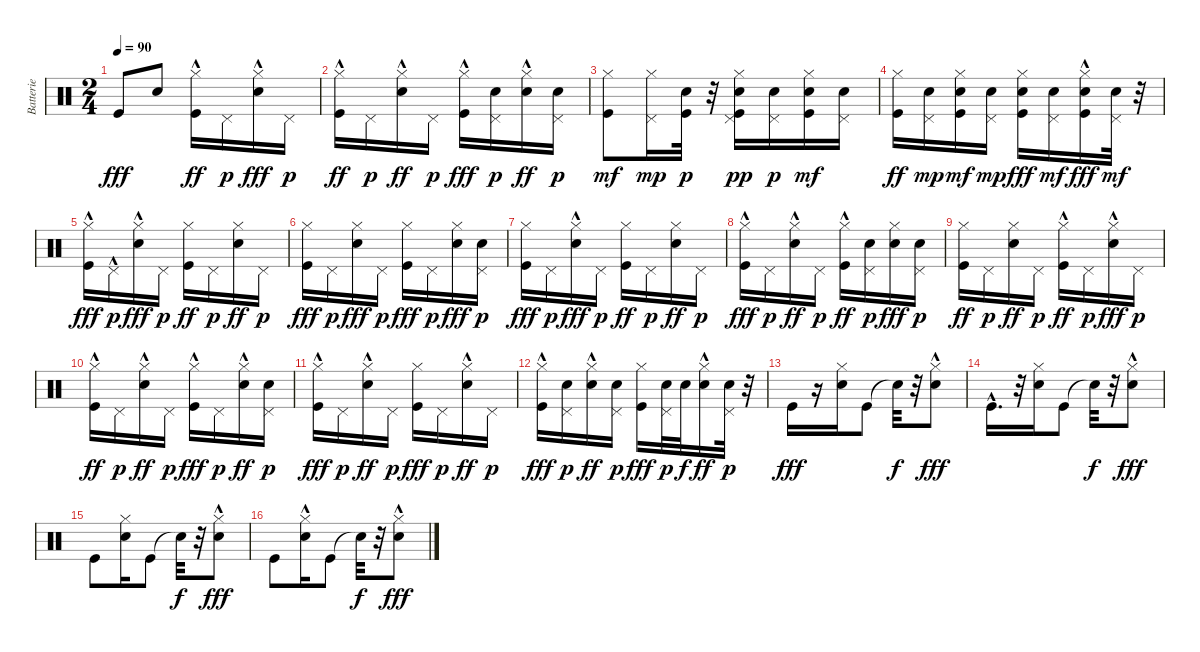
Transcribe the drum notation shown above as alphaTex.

\track ("Batterie" "Batterie") {instrument percussion}
\staff {score}
\articulation defaults
\ts (2 4)
\tempo 90
\clef neutral
\ks c "Kick (hit)".8{dy fff} "Snare (hit) 2".8
("Kick (hit)" "Hi-Hat (closed)"{hac}).16{dy ff} "Pedal Hi-Hat (hit)".16{dy p} ("Snare (hit) 2" "Hi-Hat (closed)"{hac}).16{dy fff} "Pedal Hi-Hat (hit)".16{dy p} |
("Kick (hit)" "Hi-Hat (closed)"{hac}).16{dy ff} "Pedal Hi-Hat (hit)".16{dy p} ("Snare (hit) 2" "Hi-Hat (closed)"{hac}).16{dy ff} "Pedal Hi-Hat (hit)".16{dy p} ("Kick (hit)" "Hi-Hat (closed)"{hac}).16{dy fff} ("Snare (hit) 2" "Pedal Hi-Hat (hit)").16{dy p} ("Snare (hit) 2" "Hi-Hat (closed)"{hac}).16{dy ff} ("Snare (hit) 2" "Pedal Hi-Hat (hit)").16{dy p} |
("Kick (hit)" "Hi-Hat (closed)").8{dy mf} ("Hi-Hat (closed)" "Pedal Hi-Hat (hit)").16{dy mp} ("Kick (hit)" "Snare (hit) 2").32{dy p} r.32 ("Kick (hit)" "Snare (hit) 2" "Hi-Hat (closed)" "Pedal Hi-Hat (hit)").16{dy pp} ("Snare (hit) 2" "Pedal Hi-Hat (hit)").16{dy p} ("Kick (hit)" "Snare (hit) 2" "Hi-Hat (closed)").16{dy mf} ("Snare (hit) 2" "Pedal Hi-Hat (hit)").16 |
("Kick (hit)" "Hi-Hat (closed)").16{dy ff} ("Snare (hit) 2" "Pedal Hi-Hat (hit)").16{dy mp} ("Kick (hit)" "Snare (hit) 2" "Hi-Hat (closed)").16{dy mf} ("Snare (hit) 2" "Pedal Hi-Hat (hit)").16{dy mp} ("Kick (hit)" "Snare (hit) 2" "Hi-Hat (closed)").16{dy fff} ("Snare (hit) 2" "Pedal Hi-Hat (hit)").16{dy mf} ("Kick (hit)"{hac} "Snare (hit) 2" "Hi-Hat (closed)").16{dy fff} ("Snare (hit) 2" "Pedal Hi-Hat (hit)").32{dy mf} r.32 |
("Kick (hit)" "Hi-Hat (closed)"{hac}).16{dy fff} "Pedal Hi-Hat (hit)"{hac}.16{dy p} ("Snare (hit) 2" "Hi-Hat (closed)"{hac}).16{dy fff} "Pedal Hi-Hat (hit)".16{dy p} ("Kick (hit)" "Hi-Hat (closed)").16{dy ff} "Pedal Hi-Hat (hit)".16{dy p} ("Snare (hit) 2" "Hi-Hat (closed)").16{dy ff} "Pedal Hi-Hat (hit)".16{dy p} |
("Kick (hit)" "Hi-Hat (closed)").16{dy fff} "Pedal Hi-Hat (hit)".16{dy p} ("Snare (hit) 2" "Hi-Hat (closed)").16{dy fff} "Pedal Hi-Hat (hit)".16{dy p} ("Kick (hit)" "Hi-Hat (closed)").16{dy fff} "Pedal Hi-Hat (hit)".16{dy p} ("Snare (hit) 2" "Hi-Hat (closed)").16{dy fff} ("Snare (hit) 2" "Pedal Hi-Hat (hit)").16{dy p} |
("Kick (hit)" "Hi-Hat (closed)").16{dy fff} "Pedal Hi-Hat (hit)".16{dy p} ("Snare (hit) 2" "Hi-Hat (closed)"{hac}).16{dy fff} "Pedal Hi-Hat (hit)".16{dy p} ("Kick (hit)" "Hi-Hat (closed)").16{dy ff} "Pedal Hi-Hat (hit)".16{dy p} ("Snare (hit) 2" "Hi-Hat (closed)").16{dy ff} "Pedal Hi-Hat (hit)".16{dy p} |
("Kick (hit)" "Hi-Hat (closed)"{hac}).16{dy fff} "Pedal Hi-Hat (hit)".16{dy p} ("Snare (hit) 2" "Hi-Hat (closed)"{hac}).16{dy ff} "Pedal Hi-Hat (hit)".16{dy p} ("Kick (hit)" "Hi-Hat (closed)"{hac}).16{dy ff} ("Snare (hit) 2" "Pedal Hi-Hat (hit)").16{dy p} ("Snare (hit) 2" "Hi-Hat (closed)").16{dy fff} ("Snare (hit) 2" "Pedal Hi-Hat (hit)").16{dy p} |
("Kick (hit)" "Hi-Hat (closed)").16{dy ff} "Pedal Hi-Hat (hit)".16{dy p} ("Snare (hit) 2" "Hi-Hat (closed)").16{dy ff} "Pedal Hi-Hat (hit)".16{dy p} ("Kick (hit)" "Hi-Hat (closed)"{hac}).16{dy ff} "Pedal Hi-Hat (hit)".16{dy p} ("Snare (hit) 2" "Hi-Hat (closed)"{hac}).16{dy fff} "Pedal Hi-Hat (hit)".16{dy p} |
("Kick (hit)" "Hi-Hat (closed)"{hac}).16{dy ff} "Pedal Hi-Hat (hit)".16{dy p} ("Snare (hit) 2" "Hi-Hat (closed)"{hac}).16{dy ff} "Pedal Hi-Hat (hit)".16{dy p} ("Kick (hit)" "Hi-Hat (closed)"{hac}).16{dy fff} "Pedal Hi-Hat (hit)".16{dy p} ("Snare (hit) 2" "Hi-Hat (closed)"{hac}).16{dy ff} ("Snare (hit) 2" "Pedal Hi-Hat (hit)").16{dy p} |
("Kick (hit)" "Hi-Hat (closed)"{hac}).16{dy fff} "Pedal Hi-Hat (hit)".16{dy p} ("Snare (hit) 2" "Hi-Hat (closed)"{hac}).16{dy ff} "Pedal Hi-Hat (hit)".16{dy p} ("Kick (hit)" "Hi-Hat (closed)").16{dy fff} "Pedal Hi-Hat (hit)".16{dy p} ("Snare (hit) 2" "Hi-Hat (closed)"{hac}).16{dy ff} "Pedal Hi-Hat (hit)".16{dy p} |
("Kick (hit)" "Hi-Hat (closed)"{hac}).16{dy fff} ("Snare (hit) 2" "Pedal Hi-Hat (hit)").16{dy p} ("Snare (hit) 2" "Hi-Hat (closed)"{hac}).16{dy ff} ("Snare (hit) 2" "Pedal Hi-Hat (hit)").16{dy p} ("Kick (hit)" "Hi-Hat (closed)").16{dy fff} ("Snare (hit) 2" "Pedal Hi-Hat (hit)").32{dy p} "Snare (hit) 2".32{dy f} ("Snare (hit) 2" "Hi-Hat (closed)"{hac}).16{dy ff} ("Snare (hit) 2" "Pedal Hi-Hat (hit)").32{dy p} r.32 |
"Kick (hit)".16{dy fff} r.16 ("Snare (hit) 2" "Hi-Hat (closed)").16 "Kick (hit)".8 "Snare (hit)"{t}.32{dy f} r.32 ("Snare (hit) 2"{hac} "Hi-Hat (closed)").8{dy fff} |
"Kick (hit)"{hac}.16{d} r.32 ("Snare (hit) 2" "Hi-Hat (closed)").16 "Kick (hit)".8 "Snare (hit)"{t}.32{dy f} r.32 ("Snare (hit) 2"{hac} "Hi-Hat (closed)").8{dy fff} |
"Kick (hit)".8 ("Snare (hit) 2" "Hi-Hat (closed)").16 "Kick (hit)".8 "Snare (hit)"{t}.32{dy f} r.32 ("Snare (hit) 2"{hac} "Hi-Hat (closed)").8{dy fff} |
"Kick (hit)".8 ("Snare (hit) 2" "Hi-Hat (closed)"{hac}).16 "Kick (hit)".8 "Snare (hit)"{t}.32{dy f} r.32 ("Snare (hit) 2"{hac} "Hi-Hat (closed)").8{dy fff}
